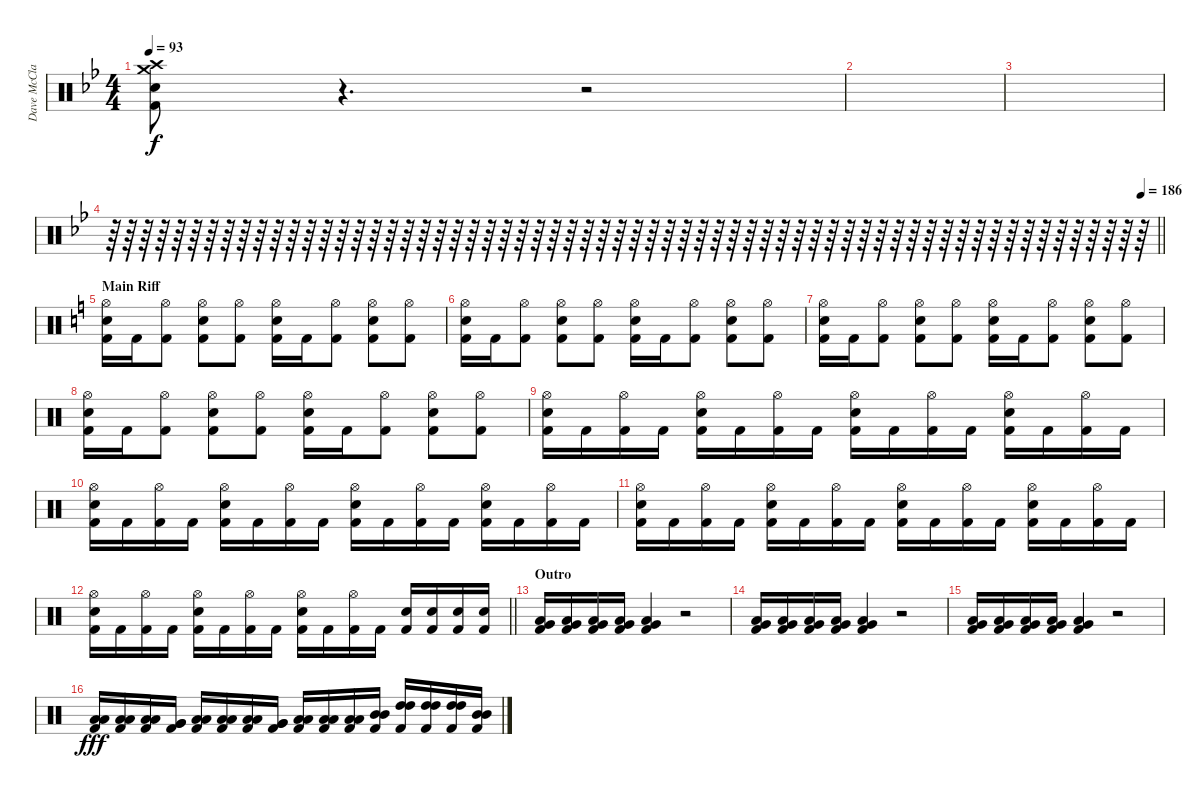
\track ("Dave McClain" "Dave McCla") {instrument percussion}
\staff {score}
\articulation defaults
\ts (4 4)
\tempo 93
\clef neutral
\ks bb
("Crash medium (hit)" "Crash high (hit)" "Snare (hit) 2" "Kick (hit) 2").8{dy f} r.4{d} r.2 |
|
|
\tempo (186 0.984375)
\barLineRight lightlight
r.64 r.64 r.64 r.64 r.64 r.64 r.64 r.64 r.64 r.64 r.64 r.64 r.64 r.64 r.64 r.64 r.64 r.64 r.64 r.64 r.64 r.64 r.64 r.64 r.64 r.64 r.64 r.64 r.64 r.64 r.64 r.64 r.64 r.64 r.64 r.64 r.64 r.64 r.64 r.64 r.64 r.64 r.64 r.64 r.64 r.64 r.64 r.64 r.64 r.64 r.64 r.64 r.64 r.64 r.64 r.64 r.64 r.64 r.64 r.64 r.64 r.64 r.64 r.64 |
\section ("" "Main Riff")
\ks c
("Hi-Hat (open)" "Snare (hit) 2" "Kick (hit) 2").16 "Kick (hit) 2".16 ("Hi-Hat (open)" "Kick (hit) 2").8 ("Hi-Hat (open)" "Snare (hit) 2" "Kick (hit) 2").8 ("Hi-Hat (open)" "Kick (hit) 2").8 ("Hi-Hat (open)" "Snare (hit) 2" "Kick (hit) 2").16 "Kick (hit) 2".16 ("Hi-Hat (open)" "Kick (hit) 2").8 ("Hi-Hat (open)" "Snare (hit) 2" "Kick (hit) 2").8 ("Hi-Hat (open)" "Kick (hit) 2").8 |
("Hi-Hat (open)" "Snare (hit) 2" "Kick (hit) 2").16 "Kick (hit) 2".16 ("Hi-Hat (open)" "Kick (hit) 2").8 ("Hi-Hat (open)" "Snare (hit) 2" "Kick (hit) 2").8 ("Hi-Hat (open)" "Kick (hit) 2").8 ("Hi-Hat (open)" "Snare (hit) 2" "Kick (hit) 2").16 "Kick (hit) 2".16 ("Hi-Hat (open)" "Kick (hit) 2").8 ("Hi-Hat (open)" "Snare (hit) 2" "Kick (hit) 2").8 ("Hi-Hat (open)" "Kick (hit) 2").8 |
("Hi-Hat (open)" "Snare (hit) 2" "Kick (hit) 2").16 "Kick (hit) 2".16 ("Hi-Hat (open)" "Kick (hit) 2").8 ("Hi-Hat (open)" "Snare (hit) 2" "Kick (hit) 2").8 ("Hi-Hat (open)" "Kick (hit) 2").8 ("Hi-Hat (open)" "Snare (hit) 2" "Kick (hit) 2").16 "Kick (hit) 2".16 ("Hi-Hat (open)" "Kick (hit) 2").8 ("Hi-Hat (open)" "Snare (hit) 2" "Kick (hit) 2").8 ("Hi-Hat (open)" "Kick (hit) 2").8 |
("Hi-Hat (open)" "Snare (hit) 2" "Kick (hit) 2").16 "Kick (hit) 2".16 ("Hi-Hat (open)" "Kick (hit) 2").8 ("Hi-Hat (open)" "Snare (hit) 2" "Kick (hit) 2").8 ("Hi-Hat (open)" "Kick (hit) 2").8 ("Hi-Hat (open)" "Snare (hit) 2" "Kick (hit) 2").16 "Kick (hit) 2".16 ("Hi-Hat (open)" "Kick (hit) 2").8 ("Hi-Hat (open)" "Snare (hit) 2" "Kick (hit) 2").8 ("Hi-Hat (open)" "Kick (hit) 2").8 |
("Hi-Hat (open)" "Snare (hit) 2" "Kick (hit) 2").16 "Kick (hit) 2".16 ("Hi-Hat (open)" "Kick (hit) 2").16 "Kick (hit) 2".16 ("Hi-Hat (open)" "Snare (hit) 2" "Kick (hit) 2").16 "Kick (hit) 2".16 ("Hi-Hat (open)" "Kick (hit) 2").16 "Kick (hit) 2".16 ("Hi-Hat (open)" "Snare (hit) 2" "Kick (hit) 2").16 "Kick (hit) 2".16 ("Hi-Hat (open)" "Kick (hit) 2").16 "Kick (hit) 2".16 ("Hi-Hat (open)" "Snare (hit) 2" "Kick (hit) 2").16 "Kick (hit) 2".16 ("Hi-Hat (open)" "Kick (hit) 2").16 "Kick (hit) 2".16 |
("Hi-Hat (open)" "Snare (hit) 2" "Kick (hit) 2").16 "Kick (hit) 2".16 ("Hi-Hat (open)" "Kick (hit) 2").16 "Kick (hit) 2".16 ("Hi-Hat (open)" "Snare (hit) 2" "Kick (hit) 2").16 "Kick (hit) 2".16 ("Hi-Hat (open)" "Kick (hit) 2").16 "Kick (hit) 2".16 ("Hi-Hat (open)" "Snare (hit) 2" "Kick (hit) 2").16 "Kick (hit) 2".16 ("Hi-Hat (open)" "Kick (hit) 2").16 "Kick (hit) 2".16 ("Hi-Hat (open)" "Snare (hit) 2" "Kick (hit) 2").16 "Kick (hit) 2".16 ("Hi-Hat (open)" "Kick (hit) 2").16 "Kick (hit) 2".16 |
("Hi-Hat (open)" "Snare (hit) 2" "Kick (hit) 2").16 "Kick (hit) 2".16 ("Hi-Hat (open)" "Kick (hit) 2").16 "Kick (hit) 2".16 ("Hi-Hat (open)" "Snare (hit) 2" "Kick (hit) 2").16 "Kick (hit) 2".16 ("Hi-Hat (open)" "Kick (hit) 2").16 "Kick (hit) 2".16 ("Hi-Hat (open)" "Snare (hit) 2" "Kick (hit) 2").16 "Kick (hit) 2".16 ("Hi-Hat (open)" "Kick (hit) 2").16 "Kick (hit) 2".16 ("Hi-Hat (open)" "Snare (hit) 2" "Kick (hit) 2").16 "Kick (hit) 2".16 ("Hi-Hat (open)" "Kick (hit) 2").16 "Kick (hit) 2".16 |
\barLineRight lightlight
("Hi-Hat (open)" "Snare (hit) 2" "Kick (hit) 2").16 "Kick (hit) 2".16 ("Hi-Hat (open)" "Kick (hit) 2").16 "Kick (hit) 2".16 ("Hi-Hat (open)" "Snare (hit) 2" "Kick (hit) 2").16 "Kick (hit) 2".16 ("Hi-Hat (open)" "Kick (hit) 2").16 "Kick (hit) 2".16 ("Hi-Hat (open)" "Snare (hit) 2" "Kick (hit) 2").16 "Kick (hit) 2".16 ("Hi-Hat (open)" "Kick (hit) 2").16 "Kick (hit) 2".16 ("Snare (hit) 2" "Kick (hit) 2").16 ("Snare (hit) 2" "Kick (hit) 2").16 ("Snare (hit) 2" "Kick (hit) 2").16 ("Snare (hit) 2" "Kick (hit) 2").16 |
\section ("" "Outro")
("Very Low Tom (hit)" "Low Floor Tom (hit)" "Kick (hit) 2").16 ("Very Low Tom (hit)" "Low Floor Tom (hit)" "Kick (hit) 2").16 ("Very Low Tom (hit)" "Low Floor Tom (hit)" "Kick (hit) 2").16 ("Very Low Tom (hit)" "Low Floor Tom (hit)" "Kick (hit) 2").16 ("Very Low Tom (hit)" "Low Floor Tom (hit)" "Kick (hit) 2").4 r.2 |
("Very Low Tom (hit)" "Low Floor Tom (hit)" "Kick (hit) 2").16 ("Very Low Tom (hit)" "Low Floor Tom (hit)" "Kick (hit) 2").16 ("Very Low Tom (hit)" "Low Floor Tom (hit)" "Kick (hit) 2").16 ("Very Low Tom (hit)" "Low Floor Tom (hit)" "Kick (hit) 2").16 ("Very Low Tom (hit)" "Low Floor Tom (hit)" "Kick (hit) 2").4 r.2 |
("Very Low Tom (hit)" "Low Floor Tom (hit)" "Kick (hit) 2").16 ("Very Low Tom (hit)" "Low Floor Tom (hit)" "Kick (hit) 2").16 ("Very Low Tom (hit)" "Low Floor Tom (hit)" "Kick (hit) 2").16 ("Very Low Tom (hit)" "Low Floor Tom (hit)" "Kick (hit) 2").16 ("Very Low Tom (hit)" "Low Floor Tom (hit)" "Kick (hit) 2").4 r.2 |
("Low Tom (hit)" "Low Tom (hit)" "Kick (hit) 2").16{dy fff} ("Low Tom (hit)" "Low Tom (hit)" "Kick (hit) 2").16 ("Low Tom (hit)" "Low Tom (hit)" "Kick (hit) 2").16 ("Very Low Tom (hit)" "Very Low Tom (hit)" "Kick (hit) 2").16 ("Low Floor Tom (hit)" "Low Floor Tom (hit)" "Kick (hit) 2").16 ("Low Floor Tom (hit)" "Low Floor Tom (hit)" "Kick (hit) 2").16 ("Low Floor Tom (hit)" "Low Floor Tom (hit)" "Kick (hit) 2").16 ("Very Low Tom (hit)" "Very Low Tom (hit)" "Kick (hit) 2").16 ("Low Tom (hit)" "Low Tom (hit)" "Kick (hit) 2").16 ("Low Tom (hit)" "Low Tom (hit)" "Kick (hit) 2").16 ("Low Tom (hit)" "Low Tom (hit)" "Kick (hit) 2").16 ("Mid Tom (hit)" "Mid Tom (hit)" "Kick (hit) 2").16 ("High Tom (hit)" "High Tom (hit)" "Kick (hit) 2").16 ("High Tom (hit)" "High Tom (hit)" "Kick (hit) 2").16 ("High Tom (hit)" "High Tom (hit)" "Kick (hit) 2").16 ("Mid Tom (hit)" "Mid Tom (hit)" "Kick (hit) 2").16
